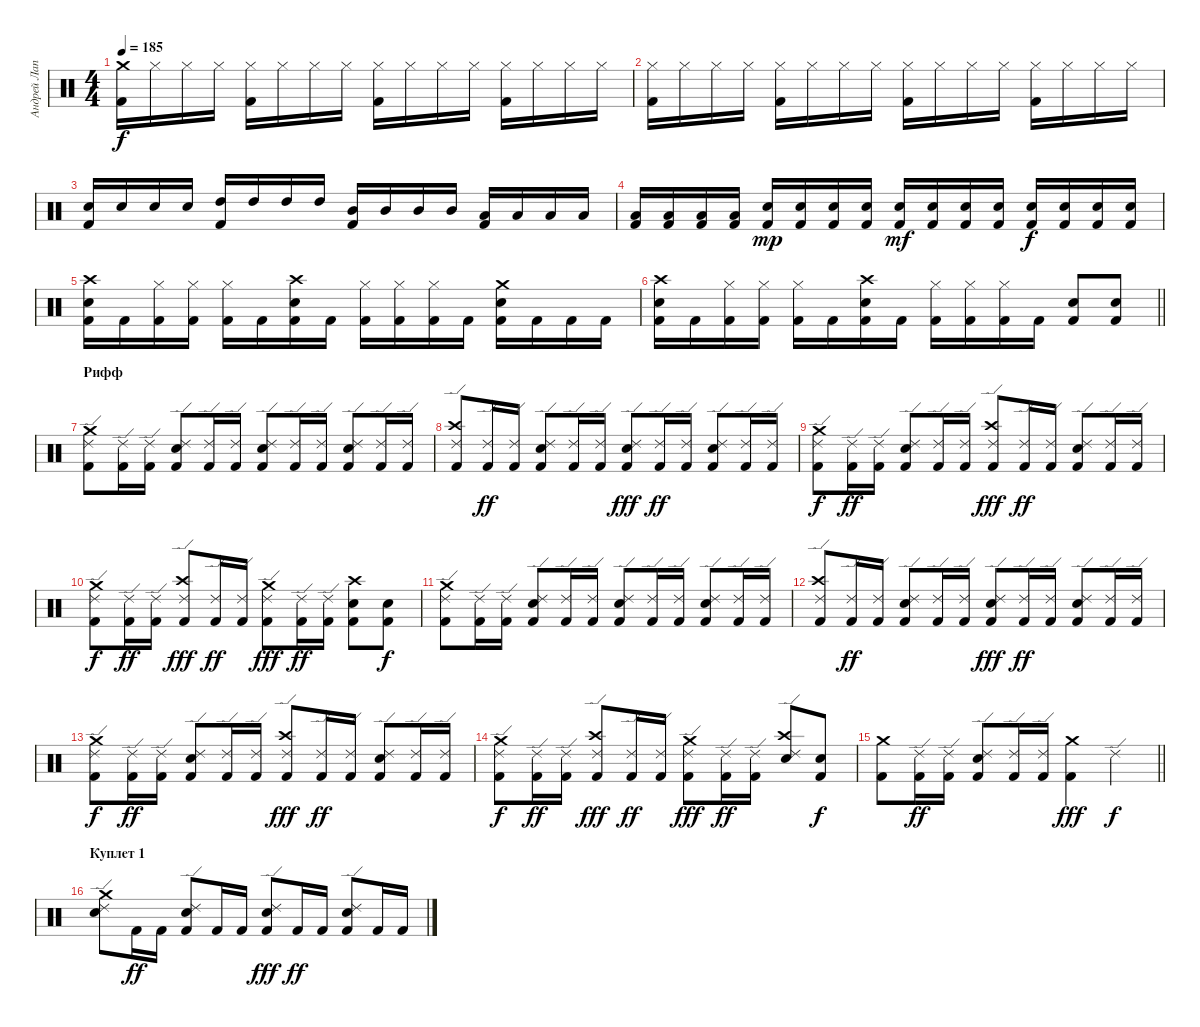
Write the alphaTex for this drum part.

\track ("Андрей Лаптев" "Андрей Лап") {instrument percussion}
\staff {score}
\articulation defaults
\ts (4 4)
\tempo 185
\clef neutral
\ks c
("Crash medium (hit)" "Kick (hit) 2").16{dy f} "Hi-Hat (closed)".16 "Hi-Hat (closed)".16 "Hi-Hat (closed)".16 ("Hi-Hat (closed)" "Kick (hit) 2").16 "Hi-Hat (closed)".16 "Hi-Hat (closed)".16 "Hi-Hat (closed)".16 ("Hi-Hat (closed)" "Kick (hit) 2").16 "Hi-Hat (closed)".16 "Hi-Hat (closed)".16 "Hi-Hat (closed)".16 ("Hi-Hat (closed)" "Kick (hit) 2").16 "Hi-Hat (closed)".16 "Hi-Hat (closed)".16 "Hi-Hat (closed)".16 |
("Hi-Hat (closed)" "Kick (hit) 2").16 "Hi-Hat (closed)".16 "Hi-Hat (closed)".16 "Hi-Hat (closed)".16 ("Hi-Hat (closed)" "Kick (hit) 2").16 "Hi-Hat (closed)".16 "Hi-Hat (closed)".16 "Hi-Hat (closed)".16 ("Hi-Hat (closed)" "Kick (hit) 2").16 "Hi-Hat (closed)".16 "Hi-Hat (closed)".16 "Hi-Hat (closed)".16 ("Hi-Hat (closed)" "Kick (hit) 2").16 "Hi-Hat (closed)".16 "Hi-Hat (closed)".16 "Hi-Hat (closed)".16 |
("Electric Snare (hit)" "Kick (hit) 2").16 "Electric Snare (hit)".16 "Electric Snare (hit)".16 "Electric Snare (hit)".16 ("High Tom (hit)" "Kick (hit) 2").16 "High Tom (hit)".16 "High Tom (hit)".16 "High Tom (hit)".16 ("Mid Tom (hit)" "Kick (hit) 2").16 "Mid Tom (hit)".16 "Mid Tom (hit)".16 "Mid Tom (hit)".16 ("Low Tom (hit)" "Kick (hit) 2").16 "Low Tom (hit)".16 "Low Tom (hit)".16 "Low Tom (hit)".16 |
("Low Floor Tom (hit)" "Kick (hit) 2").16 ("Low Floor Tom (hit)" "Kick (hit) 2").16 ("Low Floor Tom (hit)" "Kick (hit) 2").16 ("Low Floor Tom (hit)" "Kick (hit) 2").16 ("Electric Snare (hit)" "Kick (hit) 2").16{dy mp} ("Electric Snare (hit)" "Kick (hit) 2").16 ("Electric Snare (hit)" "Kick (hit) 2").16 ("Electric Snare (hit)" "Kick (hit) 2").16 ("Electric Snare (hit)" "Kick (hit) 2").16{dy mf} ("Electric Snare (hit)" "Kick (hit) 2").16 ("Electric Snare (hit)" "Kick (hit) 2").16 ("Electric Snare (hit)" "Kick (hit) 2").16 ("Electric Snare (hit)" "Kick (hit) 2").16{dy f} ("Electric Snare (hit)" "Kick (hit) 2").16 ("Electric Snare (hit)" "Kick (hit) 2").16 ("Electric Snare (hit)" "Kick (hit) 2").16 |
("Kick (hit) 2" "Crash high (hit)" "Electric Snare (hit)").16 "Kick (hit) 2".16 ("Kick (hit) 2" "Hi-Hat (closed)").16 ("Kick (hit) 2" "Hi-Hat (closed)").16 ("Kick (hit) 2" "Hi-Hat (closed)").16 "Kick (hit) 2".16 ("Kick (hit) 2" "Crash high (hit)" "Electric Snare (hit)").16 "Kick (hit) 2".16 ("Kick (hit) 2" "Hi-Hat (closed)").16 ("Kick (hit) 2" "Hi-Hat (closed)").16 ("Kick (hit) 2" "Hi-Hat (closed)").16 "Kick (hit) 2".16 ("Kick (hit) 2" "Electric Snare (hit)" "Crash medium (hit)").16 "Kick (hit) 2".16 "Kick (hit) 2".16 "Kick (hit) 2".16 |
\barLineRight lightlight
("Kick (hit) 2" "Crash high (hit)" "Electric Snare (hit)").16 "Kick (hit) 2".16 ("Kick (hit) 2" "Hi-Hat (closed)").16 ("Kick (hit) 2" "Hi-Hat (closed)").16 ("Kick (hit) 2" "Hi-Hat (closed)").16 "Kick (hit) 2".16 ("Kick (hit) 2" "Crash high (hit)" "Electric Snare (hit)").16 "Kick (hit) 2".16 ("Kick (hit) 2" "Hi-Hat (closed)").16 ("Kick (hit) 2" "Hi-Hat (closed)").16 ("Kick (hit) 2" "Hi-Hat (closed)").16 "Kick (hit) 2".16 ("Kick (hit) 2" "Electric Snare (hit)").8 ("Kick (hit) 2" "Electric Snare (hit)").8 |
\section ("" "Рифф")
("Ride (edge) 2" "Crash medium (hit)" "Kick (hit) 2").8 ("Ride (edge) 2" "Kick (hit) 2").16 ("Ride (edge) 2" "Kick (hit) 2").16 ("Ride (edge) 2" "Electric Snare (hit)" "Kick (hit) 2").8 ("Ride (edge) 2" "Kick (hit) 2").16 ("Ride (edge) 2" "Kick (hit) 2").16 ("Ride (edge) 2" "Electric Snare (hit)" "Kick (hit) 2").8 ("Ride (edge) 2" "Kick (hit) 2").16 ("Ride (edge) 2" "Kick (hit) 2").16 ("Ride (edge) 2" "Electric Snare (hit)" "Kick (hit) 2").8 ("Ride (edge) 2" "Kick (hit) 2").16 ("Ride (edge) 2" "Kick (hit) 2").16 |
("Ride (edge) 2" "Crash high (hit)" "Kick (hit) 2").8 ("Ride (edge) 2" "Kick (hit) 2").16{dy ff} ("Ride (edge) 2" "Kick (hit) 2").16 ("Kick (hit) 2" "Electric Snare (hit)" "Ride (edge) 2").8 ("Ride (edge) 2" "Kick (hit) 2").16 ("Ride (edge) 2" "Kick (hit) 2").16 ("Kick (hit) 2" "Ride (edge) 2" "Electric Snare (hit)").8{dy fff} ("Ride (edge) 2" "Kick (hit) 2").16{dy ff} ("Ride (edge) 2" "Kick (hit) 2").16 ("Ride (edge) 2" "Electric Snare (hit)" "Kick (hit) 2").8 ("Ride (edge) 2" "Kick (hit) 2").16 ("Ride (edge) 2" "Kick (hit) 2").16 |
("Ride (edge) 2" "Crash medium (hit)" "Kick (hit) 2").8{dy f} ("Ride (edge) 2" "Kick (hit) 2").16{dy ff} ("Ride (edge) 2" "Kick (hit) 2").16 ("Kick (hit) 2" "Electric Snare (hit)" "Ride (edge) 2").8 ("Ride (edge) 2" "Kick (hit) 2").16 ("Ride (edge) 2" "Kick (hit) 2").16 ("Kick (hit) 2" "Crash high (hit)" "Ride (edge) 2").8{dy fff} ("Ride (edge) 2" "Kick (hit) 2").16{dy ff} ("Ride (edge) 2" "Kick (hit) 2").16 ("Ride (edge) 2" "Electric Snare (hit)" "Kick (hit) 2").8 ("Ride (edge) 2" "Kick (hit) 2").16 ("Ride (edge) 2" "Kick (hit) 2").16 |
("Ride (edge) 2" "Crash medium (hit)" "Kick (hit) 2").8{dy f} ("Ride (edge) 2" "Kick (hit) 2").16{dy ff} ("Ride (edge) 2" "Kick (hit) 2").16 ("Kick (hit) 2" "Ride (edge) 2" "Crash high (hit)").8{dy fff} ("Ride (edge) 2" "Kick (hit) 2").16{dy ff} ("Ride (edge) 2" "Kick (hit) 2").16 ("Kick (hit) 2" "Crash medium (hit)" "Ride (edge) 2").8{dy fff} ("Ride (edge) 2" "Kick (hit) 2").16{dy ff} ("Ride (edge) 2" "Kick (hit) 2").16 ("Kick (hit) 2" "Crash high (hit)" "Electric Snare (hit)").8 ("Electric Snare (hit)" "Kick (hit) 2").8{dy f} |
("Ride (edge) 2" "Crash medium (hit)" "Kick (hit) 2").8 ("Ride (edge) 2" "Kick (hit) 2").16 ("Ride (edge) 2" "Kick (hit) 2").16 ("Ride (edge) 2" "Electric Snare (hit)" "Kick (hit) 2").8 ("Ride (edge) 2" "Kick (hit) 2").16 ("Ride (edge) 2" "Kick (hit) 2").16 ("Ride (edge) 2" "Electric Snare (hit)" "Kick (hit) 2").8 ("Ride (edge) 2" "Kick (hit) 2").16 ("Ride (edge) 2" "Kick (hit) 2").16 ("Ride (edge) 2" "Electric Snare (hit)" "Kick (hit) 2").8 ("Ride (edge) 2" "Kick (hit) 2").16 ("Ride (edge) 2" "Kick (hit) 2").16 |
("Ride (edge) 2" "Crash high (hit)" "Kick (hit) 2").8 ("Ride (edge) 2" "Kick (hit) 2").16{dy ff} ("Ride (edge) 2" "Kick (hit) 2").16 ("Kick (hit) 2" "Electric Snare (hit)" "Ride (edge) 2").8 ("Ride (edge) 2" "Kick (hit) 2").16 ("Ride (edge) 2" "Kick (hit) 2").16 ("Kick (hit) 2" "Ride (edge) 2" "Electric Snare (hit)").8{dy fff} ("Ride (edge) 2" "Kick (hit) 2").16{dy ff} ("Ride (edge) 2" "Kick (hit) 2").16 ("Ride (edge) 2" "Electric Snare (hit)" "Kick (hit) 2").8 ("Ride (edge) 2" "Kick (hit) 2").16 ("Ride (edge) 2" "Kick (hit) 2").16 |
("Ride (edge) 2" "Crash medium (hit)" "Kick (hit) 2").8{dy f} ("Ride (edge) 2" "Kick (hit) 2").16{dy ff} ("Ride (edge) 2" "Kick (hit) 2").16 ("Kick (hit) 2" "Electric Snare (hit)" "Ride (edge) 2").8 ("Ride (edge) 2" "Kick (hit) 2").16 ("Ride (edge) 2" "Kick (hit) 2").16 ("Kick (hit) 2" "Crash high (hit)" "Ride (edge) 2").8{dy fff} ("Ride (edge) 2" "Kick (hit) 2").16{dy ff} ("Ride (edge) 2" "Kick (hit) 2").16 ("Ride (edge) 2" "Electric Snare (hit)" "Kick (hit) 2").8 ("Ride (edge) 2" "Kick (hit) 2").16 ("Ride (edge) 2" "Kick (hit) 2").16 |
("Ride (edge) 2" "Crash medium (hit)" "Kick (hit) 2").8{dy f} ("Ride (edge) 2" "Kick (hit) 2").16{dy ff} ("Ride (edge) 2" "Kick (hit) 2").16 ("Kick (hit) 2" "Ride (edge) 2" "Crash high (hit)").8{dy fff} ("Ride (edge) 2" "Kick (hit) 2").16{dy ff} ("Ride (edge) 2" "Kick (hit) 2").16 ("Kick (hit) 2" "Crash medium (hit)" "Ride (edge) 2").8{dy fff} ("Ride (edge) 2" "Kick (hit) 2").16{dy ff} ("Ride (edge) 2" "Kick (hit) 2").16 ("Ride (edge) 2" "Crash high (hit)" "Electric Snare (hit)").8 ("Electric Snare (hit)" "Kick (hit) 2").8{dy f} |
\barLineRight lightlight
("Crash medium (hit)" "Kick (hit) 2").8 ("Ride (edge) 2" "Kick (hit) 2").16{dy ff} ("Ride (edge) 2" "Kick (hit) 2").16 ("Kick (hit) 2" "Electric Snare (hit)" "Ride (edge) 2").8 ("Ride (edge) 2" "Kick (hit) 2").16 ("Ride (edge) 2" "Kick (hit) 2").16 ("Kick (hit) 2" "Crash medium (hit)").4{dy fff} "Ride (edge) 2".4{dy f} |
\section ("" "Куплет 1")
("Ride (edge) 2" "Crash medium (hit)" "Electric Snare (hit)").8 "Kick (hit) 2".16{dy ff} "Kick (hit) 2".16 ("Kick (hit) 2" "Electric Snare (hit)" "Ride (edge) 2").8 "Kick (hit) 2".16 "Kick (hit) 2".16 ("Kick (hit) 2" "Ride (edge) 2" "Electric Snare (hit)").8{dy fff} "Kick (hit) 2".16{dy ff} "Kick (hit) 2".16 ("Ride (edge) 2" "Electric Snare (hit)" "Kick (hit) 2").8 "Kick (hit) 2".16 "Kick (hit) 2".16
